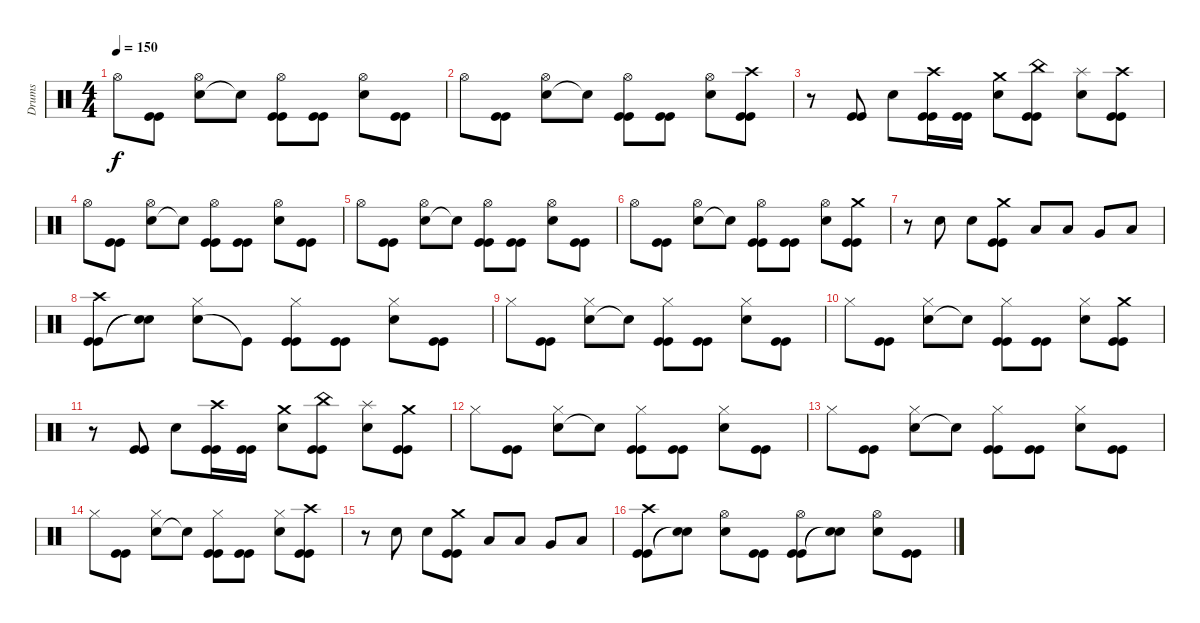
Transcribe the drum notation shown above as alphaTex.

\track ("Drums" "Drums") {instrument percussion}
\staff {score}
\articulation defaults
\ts (4 4)
\tempo 150
\clef neutral
\ks c "Hi-Hat (open)".8{dy f}
("Kick (hit)" "Kick (hit)").8 ("Snare (hit) 2" "Hi-Hat (open)").8 "Snare (hit)"{t}.8 ("Kick (hit)" "Kick (hit)" "Hi-Hat (open)").8 ("Kick (hit)" "Kick (hit)").8 ("Snare (hit) 2" "Hi-Hat (open)").8 ("Kick (hit)" "Kick (hit)").8 |
"Hi-Hat (open)".8 ("Kick (hit)" "Kick (hit)").8 ("Snare (hit) 2" "Hi-Hat (open)").8 "Snare (hit)"{t}.8 ("Kick (hit)" "Kick (hit)" "Hi-Hat (open)").8 ("Kick (hit)" "Kick (hit)").8 ("Snare (hit) 2" "Hi-Hat (open)").8 ("Kick (hit)" "Kick (hit)" "Crash high (hit)").8 |
r.8 ("Kick (hit)" "Kick (hit)").8 "Snare (hit) 2".8 ("Kick (hit)" "Kick (hit)" "Crash high (hit)").16 ("Kick (hit)" "Kick (hit)").16 ("Snare (hit) 2" "Crash medium (hit)").8 ("Kick (hit)" "Kick (hit)" "China (hit)").8 ("Snare (hit) 2" "Splash (hit)").8 ("Kick (hit)" "Kick (hit)" "Crash high (hit)").8 |
"Hi-Hat (open)".8 ("Kick (hit)" "Kick (hit)").8 ("Snare (hit) 2" "Hi-Hat (open)").8 "Snare (hit)"{t}.8 ("Kick (hit)" "Kick (hit)" "Hi-Hat (open)").8 ("Kick (hit)" "Kick (hit)").8 ("Snare (hit) 2" "Hi-Hat (open)").8 ("Kick (hit)" "Kick (hit)").8 |
"Hi-Hat (open)".8 ("Kick (hit)" "Kick (hit)").8 ("Snare (hit) 2" "Hi-Hat (open)").8 "Snare (hit)"{t}.8 ("Kick (hit)" "Kick (hit)" "Hi-Hat (open)").8 ("Kick (hit)" "Kick (hit)").8 ("Snare (hit) 2" "Hi-Hat (open)").8 ("Kick (hit)" "Kick (hit)").8 |
"Hi-Hat (open)".8 ("Kick (hit)" "Kick (hit)").8 ("Snare (hit) 2" "Hi-Hat (open)").8 "Snare (hit)"{t}.8 ("Kick (hit)" "Kick (hit)" "Hi-Hat (open)").8 ("Kick (hit)" "Kick (hit)").8 ("Snare (hit) 2" "Hi-Hat (open)").8 ("Kick (hit)" "Kick (hit)" "Crash medium (hit)").8 |
r.8 "Snare (hit) 2".8 "Snare (hit) 2".8 ("Kick (hit)" "Kick (hit)" "Crash medium (hit)").8 "Low Tom (hit)".8 "Low Tom (hit)".8 "Very Low Tom (hit)".8 "Low Floor Tom (hit)".8 |
("Kick (hit)" "Kick (hit)" "Crash high (hit)").8 ("Snare (hit)"{t} "Snare (hit)"{t}).8 ("Snare (hit) 2" "Hi-Hat (closed)").8 "Kick (hit)"{t}.8 ("Kick (hit)" "Kick (hit)" "Hi-Hat (closed)").8 ("Kick (hit)" "Kick (hit)").8 ("Snare (hit) 2" "Hi-Hat (closed)").8 ("Kick (hit)" "Kick (hit)").8 |
"Hi-Hat (closed)".8 ("Kick (hit)" "Kick (hit)").8 ("Snare (hit) 2" "Hi-Hat (closed)").8 "Snare (hit)"{t}.8 ("Kick (hit)" "Kick (hit)" "Hi-Hat (closed)").8 ("Kick (hit)" "Kick (hit)").8 ("Snare (hit) 2" "Hi-Hat (closed)").8 ("Kick (hit)" "Kick (hit)").8 |
"Hi-Hat (closed)".8 ("Kick (hit)" "Kick (hit)").8 ("Snare (hit) 2" "Hi-Hat (closed)").8 "Snare (hit)"{t}.8 ("Kick (hit)" "Kick (hit)" "Hi-Hat (closed)").8 ("Kick (hit)" "Kick (hit)").8 ("Snare (hit) 2" "Hi-Hat (closed)").8 ("Kick (hit)" "Kick (hit)" "Crash medium (hit)").8 |
r.8 ("Kick (hit)" "Kick (hit)").8 "Snare (hit) 2".8 ("Kick (hit)" "Kick (hit)" "Crash high (hit)").16 ("Kick (hit)" "Kick (hit)").16 ("Snare (hit) 2" "Crash medium (hit)").8 ("Kick (hit)" "Kick (hit)" "China (hit)").8 ("Snare (hit) 2" "Splash (hit)").8 ("Kick (hit)" "Kick (hit)" "Crash medium (hit)").8 |
"Hi-Hat (closed)".8 ("Kick (hit)" "Kick (hit)").8 ("Snare (hit) 2" "Hi-Hat (closed)").8 "Snare (hit)"{t}.8 ("Kick (hit)" "Kick (hit)" "Hi-Hat (closed)").8 ("Kick (hit)" "Kick (hit)").8 ("Snare (hit) 2" "Hi-Hat (closed)").8 ("Kick (hit)" "Kick (hit)").8 |
"Hi-Hat (closed)".8 ("Kick (hit)" "Kick (hit)").8 ("Snare (hit) 2" "Hi-Hat (closed)").8 "Snare (hit)"{t}.8 ("Kick (hit)" "Kick (hit)" "Hi-Hat (closed)").8 ("Kick (hit)" "Kick (hit)").8 ("Snare (hit) 2" "Hi-Hat (closed)").8 ("Kick (hit)" "Kick (hit)").8 |
"Hi-Hat (closed)".8 ("Kick (hit)" "Kick (hit)").8 ("Snare (hit) 2" "Hi-Hat (closed)").8 "Snare (hit)"{t}.8 ("Kick (hit)" "Kick (hit)" "Hi-Hat (closed)").8 ("Kick (hit)" "Kick (hit)").8 ("Snare (hit) 2" "Hi-Hat (closed)").8 ("Kick (hit)" "Kick (hit)" "Crash high (hit)").8 |
r.8 "Snare (hit) 2".8 "Snare (hit) 2".8 ("Kick (hit)" "Kick (hit)" "Crash medium (hit)").8 "Low Tom (hit)".8 "Low Tom (hit)".8 "Very Low Tom (hit)".8 "Low Floor Tom (hit)".8 |
("Kick (hit)" "Kick (hit)" "Crash high (hit)").8 ("Snare (hit)"{t} "Snare (hit)"{t}).8 ("Snare (hit) 2" "Hi-Hat (open)").8 ("Kick (hit)" "Kick (hit)").8 ("Kick (hit)" "Kick (hit)" "Hi-Hat (open)").8 ("Snare (hit)"{t} "Snare (hit)"{t}).8 ("Snare (hit) 2" "Hi-Hat (open)").8 ("Kick (hit)" "Kick (hit)").8
